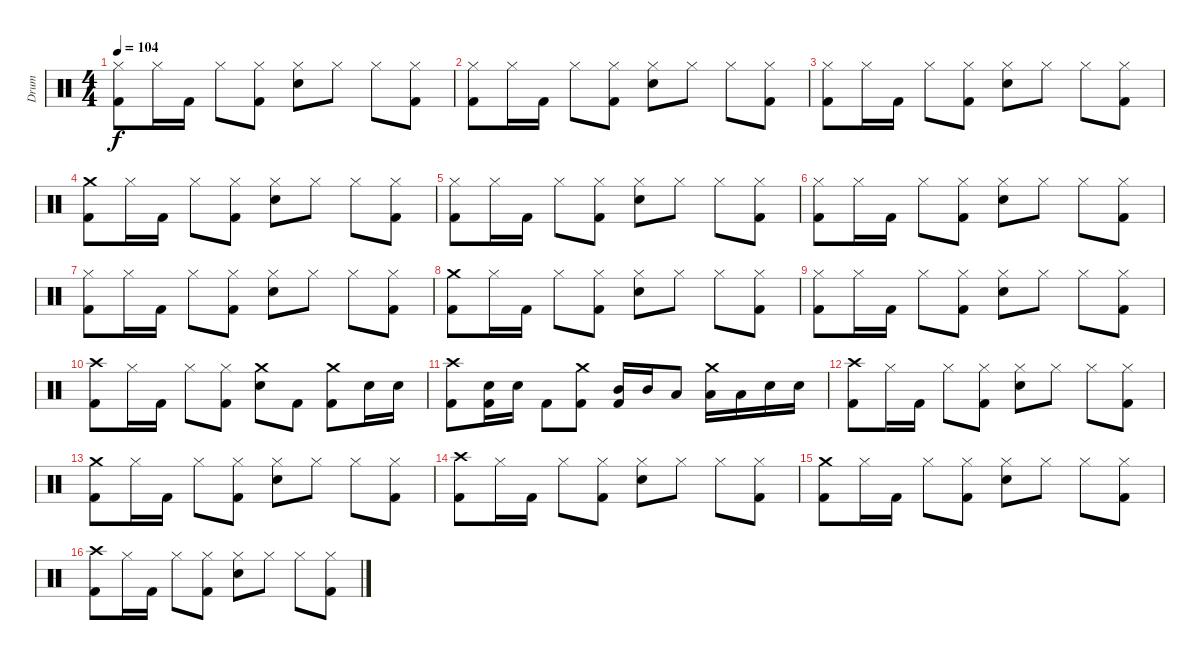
\track ("Drum" "Drum") {instrument percussion}
\staff {score}
\articulation defaults
\ts (4 4)
\tempo 104
\clef neutral
\ks c
("Hi-Hat (closed)" "Kick (hit) 2").8{dy f} "Hi-Hat (closed)".16 "Kick (hit) 2".16 "Hi-Hat (closed)".8 ("Hi-Hat (closed)" "Kick (hit) 2").8 ("Hi-Hat (closed)" "Snare (hit) 2").8 "Hi-Hat (closed)".8 "Hi-Hat (closed)".8 ("Hi-Hat (closed)" "Kick (hit) 2").8 |
("Hi-Hat (closed)" "Kick (hit) 2").8 "Hi-Hat (closed)".16 "Kick (hit) 2".16 "Hi-Hat (closed)".8 ("Hi-Hat (closed)" "Kick (hit) 2").8 ("Hi-Hat (closed)" "Snare (hit) 2").8 "Hi-Hat (closed)".8 "Hi-Hat (closed)".8 ("Hi-Hat (closed)" "Kick (hit) 2").8 |
("Hi-Hat (closed)" "Kick (hit) 2").8 "Hi-Hat (closed)".16 "Kick (hit) 2".16 "Hi-Hat (closed)".8 ("Hi-Hat (closed)" "Kick (hit) 2").8 ("Hi-Hat (closed)" "Snare (hit) 2").8 "Hi-Hat (closed)".8 "Hi-Hat (closed)".8 ("Hi-Hat (closed)" "Kick (hit) 2").8 |
("Crash medium (hit)" "Kick (hit) 2").8 "Hi-Hat (closed)".16 "Kick (hit) 2".16 "Hi-Hat (closed)".8 ("Hi-Hat (closed)" "Kick (hit) 2").8 ("Hi-Hat (closed)" "Snare (hit) 2").8 "Hi-Hat (closed)".8 "Hi-Hat (closed)".8 ("Hi-Hat (closed)" "Kick (hit) 2").8 |
("Hi-Hat (closed)" "Kick (hit) 2").8 "Hi-Hat (closed)".16 "Kick (hit) 2".16 "Hi-Hat (closed)".8 ("Hi-Hat (closed)" "Kick (hit) 2").8 ("Hi-Hat (closed)" "Snare (hit) 2").8 "Hi-Hat (closed)".8 "Hi-Hat (closed)".8 ("Hi-Hat (closed)" "Kick (hit) 2").8 |
("Hi-Hat (closed)" "Kick (hit) 2").8 "Hi-Hat (closed)".16 "Kick (hit) 2".16 "Hi-Hat (closed)".8 ("Hi-Hat (closed)" "Kick (hit) 2").8 ("Hi-Hat (closed)" "Snare (hit) 2").8 "Hi-Hat (closed)".8 "Hi-Hat (closed)".8 ("Hi-Hat (closed)" "Kick (hit) 2").8 |
("Hi-Hat (closed)" "Kick (hit) 2").8 "Hi-Hat (closed)".16 "Kick (hit) 2".16 "Hi-Hat (closed)".8 ("Hi-Hat (closed)" "Kick (hit) 2").8 ("Hi-Hat (closed)" "Snare (hit) 2").8 "Hi-Hat (closed)".8 "Hi-Hat (closed)".8 ("Hi-Hat (closed)" "Kick (hit) 2").8 |
("Crash medium (hit)" "Kick (hit) 2").8 "Hi-Hat (closed)".16 "Kick (hit) 2".16 "Hi-Hat (closed)".8 ("Hi-Hat (closed)" "Kick (hit) 2").8 ("Hi-Hat (closed)" "Snare (hit) 2").8 "Hi-Hat (closed)".8 "Hi-Hat (closed)".8 ("Hi-Hat (closed)" "Kick (hit) 2").8 |
("Hi-Hat (closed)" "Kick (hit) 2").8 "Hi-Hat (closed)".16 "Kick (hit) 2".16 "Hi-Hat (closed)".8 ("Hi-Hat (closed)" "Kick (hit) 2").8 ("Hi-Hat (closed)" "Snare (hit) 2").8 "Hi-Hat (closed)".8 "Hi-Hat (closed)".8 ("Hi-Hat (closed)" "Kick (hit) 2").8 |
("Crash high (hit)" "Kick (hit) 2").8 "Hi-Hat (closed)".16 "Kick (hit) 2".16 "Hi-Hat (closed)".8 ("Hi-Hat (closed)" "Kick (hit) 2").8 ("Crash medium (hit)" "Snare (hit) 2").8 "Kick (hit) 2".8 ("Crash medium (hit)" "Kick (hit) 2").8 "Snare (hit) 2".16 "Snare (hit) 2".16 |
("Crash high (hit)" "Kick (hit) 2").8 ("Snare (hit) 2" "Kick (hit) 2").16 "Snare (hit) 2".16 "Kick (hit) 2".8 ("Crash medium (hit)" "Kick (hit) 2").8 ("Mid Tom (hit)" "Kick (hit) 2").16 "Mid Tom (hit)".16 "Low Tom (hit)".8 ("Crash medium (hit)" "Low Tom (hit)").16 "Low Tom (hit)".16 "Snare (hit) 2".16 "Snare (hit) 2".16 |
("Crash high (hit)" "Kick (hit) 2").8 "Hi-Hat (closed)".16 "Kick (hit) 2".16 "Hi-Hat (closed)".8 ("Hi-Hat (closed)" "Kick (hit) 2").8 ("Hi-Hat (closed)" "Snare (hit) 2").8 "Hi-Hat (closed)".8 "Hi-Hat (closed)".8 ("Hi-Hat (closed)" "Kick (hit) 2").8 |
("Crash medium (hit)" "Kick (hit) 2").8 "Hi-Hat (closed)".16 "Kick (hit) 2".16 "Hi-Hat (closed)".8 ("Hi-Hat (closed)" "Kick (hit) 2").8 ("Hi-Hat (closed)" "Snare (hit) 2").8 "Hi-Hat (closed)".8 "Hi-Hat (closed)".8 ("Hi-Hat (closed)" "Kick (hit) 2").8 |
("Crash high (hit)" "Kick (hit) 2").8 "Hi-Hat (closed)".16 "Kick (hit) 2".16 "Hi-Hat (closed)".8 ("Hi-Hat (closed)" "Kick (hit) 2").8 ("Hi-Hat (closed)" "Snare (hit) 2").8 "Hi-Hat (closed)".8 "Hi-Hat (closed)".8 ("Hi-Hat (closed)" "Kick (hit) 2").8 |
("Crash medium (hit)" "Kick (hit) 2").8 "Hi-Hat (closed)".16 "Kick (hit) 2".16 "Hi-Hat (closed)".8 ("Hi-Hat (closed)" "Kick (hit) 2").8 ("Hi-Hat (closed)" "Snare (hit) 2").8 "Hi-Hat (closed)".8 "Hi-Hat (closed)".8 ("Hi-Hat (closed)" "Kick (hit) 2").8 |
("Crash high (hit)" "Kick (hit) 2").8 "Hi-Hat (closed)".16 "Kick (hit) 2".16 "Hi-Hat (closed)".8 ("Hi-Hat (closed)" "Kick (hit) 2").8 ("Hi-Hat (closed)" "Snare (hit) 2").8 "Hi-Hat (closed)".8 "Hi-Hat (closed)".8 ("Hi-Hat (closed)" "Kick (hit) 2").8
